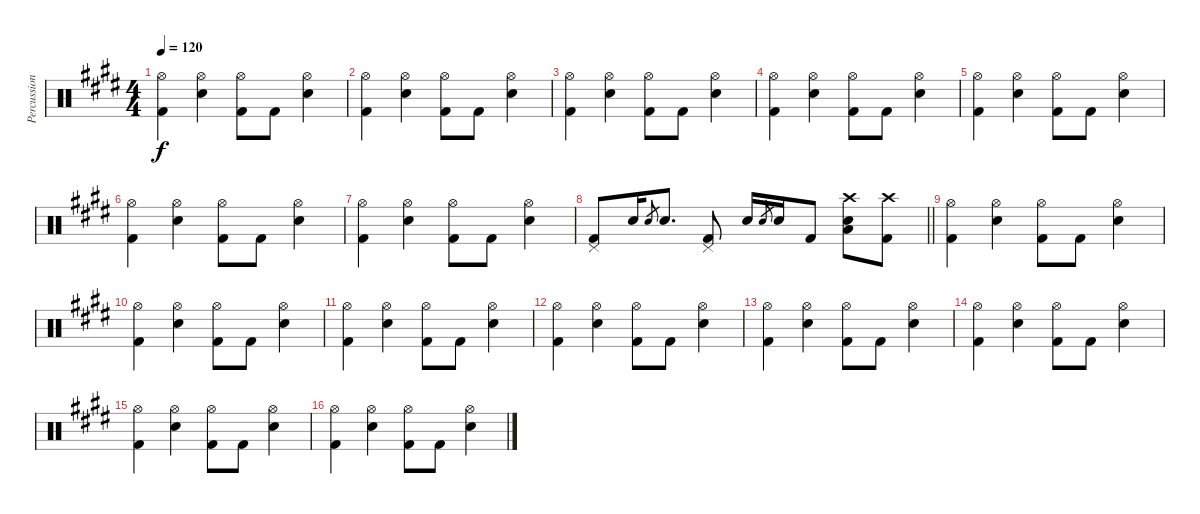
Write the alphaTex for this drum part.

\track ("Percussion" "Percussion") {instrument percussion}
\staff {score}
\articulation defaults
\ts (4 4)
\tempo 120
\clef neutral
\ks c#minor
("Hi-Hat (open)" "Kick (hit) 2").4{dy f} ("Hi-Hat (open)" "Snare (hit) 2").4 ("Hi-Hat (open)" "Kick (hit) 2").8 "Kick (hit) 2".8 ("Hi-Hat (open)" "Snare (hit) 2").4 |
\ks e
("Hi-Hat (open)" "Kick (hit) 2").4 ("Hi-Hat (open)" "Snare (hit) 2").4 ("Hi-Hat (open)" "Kick (hit) 2").8 "Kick (hit) 2".8 ("Hi-Hat (open)" "Snare (hit) 2").4 |
\ks c#minor
("Hi-Hat (open)" "Kick (hit) 2").4 ("Hi-Hat (open)" "Snare (hit) 2").4 ("Hi-Hat (open)" "Kick (hit) 2").8 "Kick (hit) 2".8 ("Hi-Hat (open)" "Snare (hit) 2").4 |
\ks e
("Hi-Hat (open)" "Kick (hit) 2").4 ("Hi-Hat (open)" "Snare (hit) 2").4 ("Hi-Hat (open)" "Kick (hit) 2").8 "Kick (hit) 2".8 ("Hi-Hat (open)" "Snare (hit) 2").4 |
("Hi-Hat (open)" "Kick (hit) 2").4 ("Hi-Hat (open)" "Snare (hit) 2").4 ("Hi-Hat (open)" "Kick (hit) 2").8 "Kick (hit) 2".8 ("Hi-Hat (open)" "Snare (hit) 2").4 |
("Hi-Hat (open)" "Kick (hit) 2").4 ("Hi-Hat (open)" "Snare (hit) 2").4 ("Hi-Hat (open)" "Kick (hit) 2").8 "Kick (hit) 2".8 ("Hi-Hat (open)" "Snare (hit) 2").4 |
("Hi-Hat (open)" "Kick (hit) 2").4 ("Hi-Hat (open)" "Snare (hit) 2").4 ("Hi-Hat (open)" "Kick (hit) 2").8 "Kick (hit) 2".8 ("Hi-Hat (open)" "Snare (hit) 2").4 |
\barLineRight lightlight
\ks c#minor
("Pedal Hi-Hat (hit)" "Kick (hit) 2").8 "Snare (hit) 2".16 "Snare (hit) 2".8{gr} "Snare (hit) 2".8{d} ("Pedal Hi-Hat (hit)" "Kick (hit) 2").8 "Snare (hit) 2".16 "Snare (hit) 2".8{gr} "Snare (hit) 2".16 "Kick (hit) 2".8 ("Crash high (hit)" "Low Floor Tom (hit)" "Snare (hit) 2").8 ("Crash high (hit)" "Kick (hit) 2").8 |
\ks e
("Hi-Hat (open)" "Kick (hit) 2").4 ("Hi-Hat (open)" "Snare (hit) 2").4 ("Hi-Hat (open)" "Kick (hit) 2").8 "Kick (hit) 2".8 ("Hi-Hat (open)" "Snare (hit) 2").4 |
("Hi-Hat (open)" "Kick (hit) 2").4 ("Hi-Hat (open)" "Snare (hit) 2").4 ("Hi-Hat (open)" "Kick (hit) 2").8 "Kick (hit) 2".8 ("Hi-Hat (open)" "Snare (hit) 2").4 |
("Hi-Hat (open)" "Kick (hit) 2").4 ("Hi-Hat (open)" "Snare (hit) 2").4 ("Hi-Hat (open)" "Kick (hit) 2").8 "Kick (hit) 2".8 ("Hi-Hat (open)" "Snare (hit) 2").4 |
("Hi-Hat (open)" "Kick (hit) 2").4 ("Hi-Hat (open)" "Snare (hit) 2").4 ("Hi-Hat (open)" "Kick (hit) 2").8 "Kick (hit) 2".8 ("Hi-Hat (open)" "Snare (hit) 2").4 |
("Hi-Hat (open)" "Kick (hit) 2").4 ("Hi-Hat (open)" "Snare (hit) 2").4 ("Hi-Hat (open)" "Kick (hit) 2").8 "Kick (hit) 2".8 ("Hi-Hat (open)" "Snare (hit) 2").4 |
("Hi-Hat (open)" "Kick (hit) 2").4 ("Hi-Hat (open)" "Snare (hit) 2").4 ("Hi-Hat (open)" "Kick (hit) 2").8 "Kick (hit) 2".8 ("Hi-Hat (open)" "Snare (hit) 2").4 |
("Hi-Hat (open)" "Kick (hit) 2").4 ("Hi-Hat (open)" "Snare (hit) 2").4 ("Hi-Hat (open)" "Kick (hit) 2").8 "Kick (hit) 2".8 ("Hi-Hat (open)" "Snare (hit) 2").4 |
("Hi-Hat (open)" "Kick (hit) 2").4 ("Hi-Hat (open)" "Snare (hit) 2").4 ("Hi-Hat (open)" "Kick (hit) 2").8 "Kick (hit) 2".8 ("Hi-Hat (open)" "Snare (hit) 2").4
